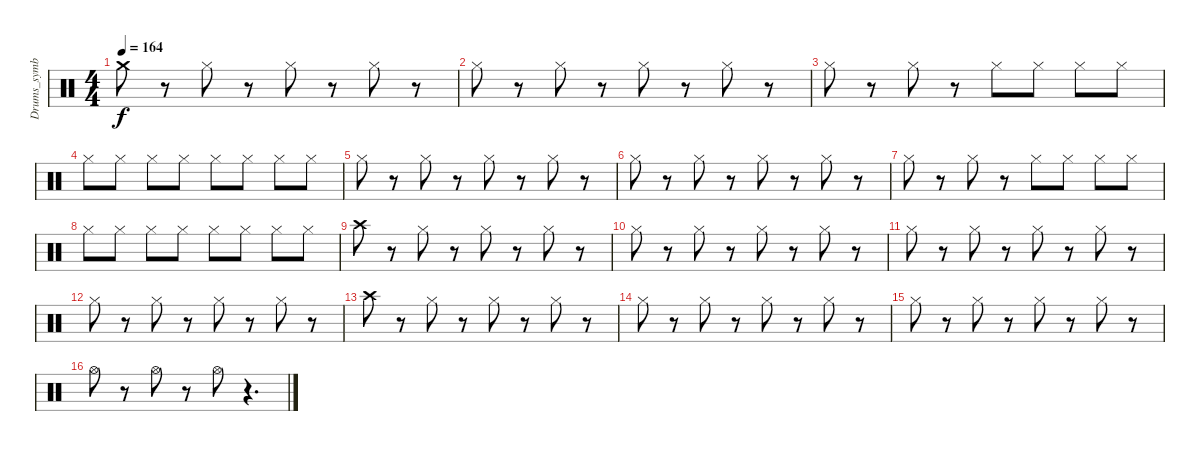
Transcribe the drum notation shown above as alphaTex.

\track ("Drums_symbal" "Drums_symb") {instrument percussion}
\staff {score}
\articulation defaults
\ts (4 4)
\tempo 164
\clef neutral
\ks c "Crash medium (hit)".8{dy f}
r.8 "Hi-Hat (closed)".8 r.8 "Hi-Hat (closed)".8 r.8 "Hi-Hat (closed)".8 r.8 |
"Hi-Hat (closed)".8 r.8 "Hi-Hat (closed)".8 r.8 "Hi-Hat (closed)".8 r.8 "Hi-Hat (closed)".8 r.8 |
"Hi-Hat (closed)".8 r.8 "Hi-Hat (closed)".8 r.8 "Hi-Hat (closed)".8 "Hi-Hat (closed)".8 "Hi-Hat (closed)".8 "Hi-Hat (closed)".8 |
"Hi-Hat (closed)".8 "Hi-Hat (closed)".8 "Hi-Hat (closed)".8 "Hi-Hat (closed)".8 "Hi-Hat (closed)".8 "Hi-Hat (closed)".8 "Hi-Hat (closed)".8 "Hi-Hat (closed)".8 |
"Hi-Hat (closed)".8 r.8 "Hi-Hat (closed)".8 r.8 "Hi-Hat (closed)".8 r.8 "Hi-Hat (closed)".8 r.8 |
"Hi-Hat (closed)".8 r.8 "Hi-Hat (closed)".8 r.8 "Hi-Hat (closed)".8 r.8 "Hi-Hat (closed)".8 r.8 |
"Hi-Hat (closed)".8 r.8 "Hi-Hat (closed)".8 r.8 "Hi-Hat (closed)".8 "Hi-Hat (closed)".8 "Hi-Hat (closed)".8 "Hi-Hat (closed)".8 |
"Hi-Hat (closed)".8 "Hi-Hat (closed)".8 "Hi-Hat (closed)".8 "Hi-Hat (closed)".8 "Hi-Hat (closed)".8 "Hi-Hat (closed)".8 "Hi-Hat (closed)".8 "Hi-Hat (closed)".8 |
"Crash high (hit)".8 r.8 "Hi-Hat (closed)".8 r.8 "Hi-Hat (closed)".8 r.8 "Hi-Hat (closed)".8 r.8 |
"Hi-Hat (closed)".8 r.8 "Hi-Hat (closed)".8 r.8 "Hi-Hat (closed)".8 r.8 "Hi-Hat (closed)".8 r.8 |
"Hi-Hat (closed)".8 r.8 "Hi-Hat (closed)".8 r.8 "Hi-Hat (closed)".8 r.8 "Hi-Hat (closed)".8 r.8 |
"Hi-Hat (closed)".8 r.8 "Hi-Hat (closed)".8 r.8 "Hi-Hat (closed)".8 r.8 "Hi-Hat (closed)".8 r.8 |
"Crash high (hit)".8 r.8 "Hi-Hat (closed)".8 r.8 "Hi-Hat (closed)".8 r.8 "Hi-Hat (closed)".8 r.8 |
"Hi-Hat (closed)".8 r.8 "Hi-Hat (closed)".8 r.8 "Hi-Hat (closed)".8 r.8 "Hi-Hat (closed)".8 r.8 |
"Hi-Hat (closed)".8 r.8 "Hi-Hat (closed)".8 r.8 "Hi-Hat (closed)".8 r.8 "Hi-Hat (closed)".8 r.8 |
"Hi-Hat (open)".8 r.8 "Hi-Hat (open)".8 r.8 "Hi-Hat (open)".8 r.4{d}
